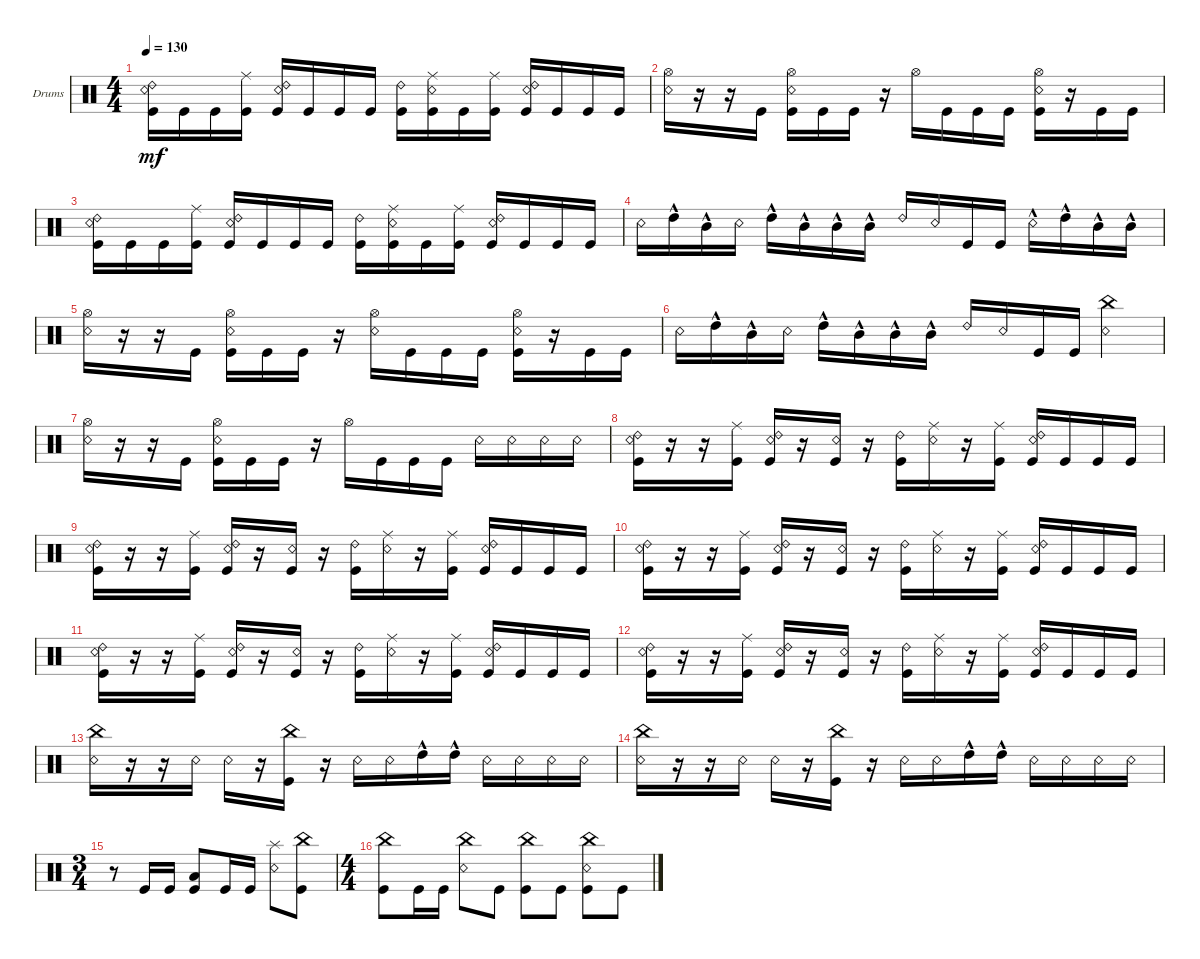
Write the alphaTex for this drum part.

\defaultSystemsLayout 4
\bracketExtendMode groupsimilarinstruments
\firstSystemTrackNameOrientation horizontal
\otherSystemsTrackNameOrientation horizontal
\track ("Drumkit" "Drums") {instrument percussion}
\staff {score}
\articulation defaults
\ts (4 4)
\tempo 130
\clef neutral
\ks c
("Kick (hit)" "Snare (rim shot)" "Ride (bell) 2").16{dy mf} "Kick (hit)".16 "Kick (hit)".16 ("Kick (hit)" "Ride (middle)").16 ("Kick (hit)" "Snare (rim shot)" "Ride (bell) 2").16 "Kick (hit)".16 "Kick (hit)".16 "Kick (hit)".16 ("Kick (hit)" "Ride (bell) 2").16 ("Snare (rim shot)" "Ride (middle)" "Kick (hit)").16 "Kick (hit)".16 ("Kick (hit)" "Ride (middle)").16 ("Kick (hit)" "Snare (rim shot)" "Ride (bell) 2").16 "Kick (hit)".16 "Kick (hit)".16 "Kick (hit)".16 |
("Snare (rim shot)" "Hi-Hat (open)").16 r.16 r.16 "Kick (hit)".16 ("Kick (hit)" "Hi-Hat (open)" "Snare (rim shot)").16 "Kick (hit)".16 "Kick (hit)".16 r.16 "Hi-Hat (open)".16 "Kick (hit)".16 "Kick (hit)".16 "Kick (hit)".16 ("Kick (hit)" "Snare (rim shot)" "Hi-Hat (open)").16 r.16 "Kick (hit)".16 "Kick (hit)".16 |
("Kick (hit)" "Snare (rim shot)" "Ride (bell) 2").16 "Kick (hit)".16 "Kick (hit)".16 ("Kick (hit)" "Ride (middle)").16 ("Kick (hit)" "Snare (rim shot)" "Ride (bell) 2").16 "Kick (hit)".16 "Kick (hit)".16 "Kick (hit)".16 ("Kick (hit)" "Ride (bell) 2").16 ("Snare (rim shot)" "Ride (middle)" "Kick (hit)").16 "Kick (hit)".16 ("Kick (hit)" "Ride (middle)").16 ("Kick (hit)" "Snare (rim shot)" "Ride (bell) 2").16 "Kick (hit)".16 "Kick (hit)".16 "Kick (hit)".16 |
"Snare (rim shot)".16 "High Tom (hit)"{hac}.16 "Mid Tom (hit)"{hac}.16 "Snare (rim shot)".16 "High Tom (hit)"{hac}.16 "Mid Tom (hit)"{hac}.16 "Mid Tom (hit)"{hac}.16 "Mid Tom (hit)"{hac}.16 "Ride (bell) 2".16 "Snare (rim shot)".16 "Kick (hit)".16 "Kick (hit)".16 "Snare (rim shot)"{hac}.16 "High Tom (hit)"{hac}.16 "Mid Tom (hit)"{hac}.16 "Mid Tom (hit)"{hac}.16 |
("Snare (rim shot)" "Hi-Hat (open)").16 r.16 r.16 "Kick (hit)".16 ("Kick (hit)" "Hi-Hat (open)" "Snare (rim shot)").16 "Kick (hit)".16 "Kick (hit)".16 r.16 ("Hi-Hat (open)" "Snare (rim shot)").16 "Kick (hit)".16 "Kick (hit)".16 "Kick (hit)".16 ("Kick (hit)" "Snare (rim shot)" "Hi-Hat (open)").16 r.16 "Kick (hit)".16 "Kick (hit)".16 |
"Snare (rim shot)".16 "High Tom (hit)"{hac}.16 "Mid Tom (hit)"{hac}.16 "Snare (rim shot)".16 "High Tom (hit)"{hac}.16 "Mid Tom (hit)"{hac}.16 "Mid Tom (hit)"{hac}.16 "Mid Tom (hit)"{hac}.16 "Ride (bell) 2".16 "Snare (rim shot)".16 "Kick (hit)".16 "Kick (hit)".16 ("Snare (rim shot)" "China (hit)").4 |
("Snare (rim shot)" "Hi-Hat (open)").16 r.16 r.16 "Kick (hit)".16 ("Kick (hit)" "Hi-Hat (open)" "Snare (rim shot)").16 "Kick (hit)".16 "Kick (hit)".16 r.16 "Hi-Hat (open)".16 "Kick (hit)".16 "Kick (hit)".16 "Kick (hit)".16 "Snare (rim shot)".16 "Snare (rim shot)".16 "Snare (rim shot)".16 "Snare (rim shot)".16 |
("Kick (hit)" "Snare (rim shot)" "Ride (bell) 2").16 r.16 r.16 ("Kick (hit)" "Ride (middle)").16 ("Kick (hit)" "Snare (rim shot)" "Ride (bell) 2").16 r.16 ("Kick (hit)" "Snare (rim shot)").16 r.16 ("Kick (hit)" "Ride (bell) 2").16 ("Snare (rim shot)" "Ride (middle)").16 r.16 ("Kick (hit)" "Ride (middle)").16 ("Kick (hit)" "Snare (rim shot)" "Ride (bell) 2").16 "Kick (hit)".16 "Kick (hit)".16 "Kick (hit)".16 |
("Kick (hit)" "Snare (rim shot)" "Ride (bell) 2").16 r.16 r.16 ("Kick (hit)" "Ride (middle)").16 ("Kick (hit)" "Snare (rim shot)" "Ride (bell) 2").16 r.16 ("Kick (hit)" "Snare (rim shot)").16 r.16 ("Kick (hit)" "Ride (bell) 2").16 ("Snare (rim shot)" "Ride (middle)").16 r.16 ("Kick (hit)" "Ride (middle)").16 ("Kick (hit)" "Snare (rim shot)" "Ride (bell) 2").16 "Kick (hit)".16 "Kick (hit)".16 "Kick (hit)".16 |
("Kick (hit)" "Snare (rim shot)" "Ride (bell) 2").16 r.16 r.16 ("Kick (hit)" "Ride (middle)").16 ("Kick (hit)" "Snare (rim shot)" "Ride (bell) 2").16 r.16 ("Kick (hit)" "Snare (rim shot)").16 r.16 ("Kick (hit)" "Ride (bell) 2").16 ("Snare (rim shot)" "Ride (middle)").16 r.16 ("Kick (hit)" "Ride (middle)").16 ("Kick (hit)" "Snare (rim shot)" "Ride (bell) 2").16 "Kick (hit)".16 "Kick (hit)".16 "Kick (hit)".16 |
("Kick (hit)" "Snare (rim shot)" "Ride (bell) 2").16 r.16 r.16 ("Kick (hit)" "Ride (middle)").16 ("Kick (hit)" "Snare (rim shot)" "Ride (bell) 2").16 r.16 ("Kick (hit)" "Snare (rim shot)").16 r.16 ("Kick (hit)" "Ride (bell) 2").16 ("Snare (rim shot)" "Ride (middle)").16 r.16 ("Kick (hit)" "Ride (middle)").16 ("Kick (hit)" "Snare (rim shot)" "Ride (bell) 2").16 "Kick (hit)".16 "Kick (hit)".16 "Kick (hit)".16 |
("Kick (hit)" "Snare (rim shot)" "Ride (bell) 2").16 r.16 r.16 ("Kick (hit)" "Ride (middle)").16 ("Kick (hit)" "Snare (rim shot)" "Ride (bell) 2").16 r.16 ("Kick (hit)" "Snare (rim shot)").16 r.16 ("Kick (hit)" "Ride (bell) 2").16 ("Snare (rim shot)" "Ride (middle)").16 r.16 ("Kick (hit)" "Ride (middle)").16 ("Kick (hit)" "Snare (rim shot)" "Ride (bell) 2").16 "Kick (hit)".16 "Kick (hit)".16 "Kick (hit)".16 |
("Snare (rim shot)" "China (hit)").16 r.16 r.16 "Snare (rim shot)".16 "Snare (rim shot)".16 r.16 ("China (hit)" "Kick (hit)").16 r.16 "Snare (rim shot)".16 "Snare (rim shot)".16 "High Tom (hit)"{hac}.16 "High Tom (hit)"{hac}.16 "Snare (rim shot)".16 "Snare (rim shot)".16 "Snare (rim shot)".16 "Snare (rim shot)".16 |
("Snare (rim shot)" "China (hit)").16 r.16 r.16 "Snare (rim shot)".16 "Snare (rim shot)".16 r.16 ("China (hit)" "Kick (hit)").16 r.16 "Snare (rim shot)".16 "Snare (rim shot)".16 "High Tom (hit)"{hac}.16 "High Tom (hit)"{hac}.16 "Snare (rim shot)".16 "Snare (rim shot)".16 "Snare (rim shot)".16 "Snare (rim shot)".16 |
\ts (3 4)
r.8 "Kick (hit)".16 "Kick (hit)".16 ("Kick (hit)" "Low Tom (hit)").8 "Kick (hit)".16 "Kick (hit)".16 ("Snare (rim shot)" "Splash (hit)").8 ("Kick (hit)" "China (hit)").8 |
\ts (4 4)
("China (hit)" "Kick (hit)").8 "Kick (hit)".16 "Kick (hit)".16 ("Snare (rim shot)" "China (hit)").8 "Kick (hit)".8 ("Kick (hit)" "China (hit)").8 "Kick (hit)".8 ("Kick (hit)" "China (hit)" "Snare (rim shot)").8 "Kick (hit)".8
